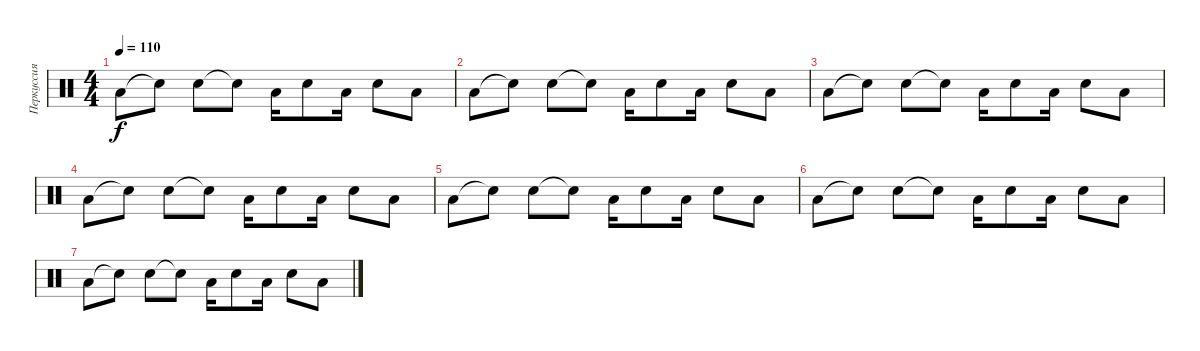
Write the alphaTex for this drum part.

\track ("Перкуссия" "Перкуссия") {instrument percussion}
\staff {score}
\articulation defaults
\ts (4 4)
\tempo 110
\clef neutral
\ks c "Low Floor Tom (hit)".8{dy f} "Snare (hit)"{t}.8 "Electric Snare (hit)".8 "Snare (hit)"{t}.8 "Low Floor Tom (hit)".16 "Electric Snare (hit)".8 "Low Floor Tom (hit)".16 "Electric Snare (hit)".8 "Low Floor Tom (hit)".8
|
"Low Floor Tom (hit)".8 "Snare (hit)"{t}.8 "Electric Snare (hit)".8 "Snare (hit)"{t}.8 "Low Floor Tom (hit)".16 "Electric Snare (hit)".8 "Low Floor Tom (hit)".16 "Electric Snare (hit)".8 "Low Floor Tom (hit)".8 |
"Low Floor Tom (hit)".8 "Snare (hit)"{t}.8 "Electric Snare (hit)".8 "Snare (hit)"{t}.8 "Low Floor Tom (hit)".16 "Electric Snare (hit)".8 "Low Floor Tom (hit)".16 "Electric Snare (hit)".8 "Low Floor Tom (hit)".8 |
"Low Floor Tom (hit)".8 "Snare (hit)"{t}.8 "Electric Snare (hit)".8 "Snare (hit)"{t}.8 "Low Floor Tom (hit)".16 "Electric Snare (hit)".8 "Low Floor Tom (hit)".16 "Electric Snare (hit)".8 "Low Floor Tom (hit)".8 |
"Low Floor Tom (hit)".8 "Snare (hit)"{t}.8 "Electric Snare (hit)".8 "Snare (hit)"{t}.8 "Low Floor Tom (hit)".16 "Electric Snare (hit)".8 "Low Floor Tom (hit)".16 "Electric Snare (hit)".8 "Low Floor Tom (hit)".8 |
"Low Floor Tom (hit)".8 "Snare (hit)"{t}.8 "Electric Snare (hit)".8 "Snare (hit)"{t}.8 "Low Floor Tom (hit)".16 "Electric Snare (hit)".8 "Low Floor Tom (hit)".16 "Electric Snare (hit)".8 "Low Floor Tom (hit)".8 |
"Low Floor Tom (hit)".8 "Snare (hit)"{t}.8 "Electric Snare (hit)".8 "Snare (hit)"{t}.8 "Low Floor Tom (hit)".16 "Electric Snare (hit)".8 "Low Floor Tom (hit)".16 "Electric Snare (hit)".8 "Low Floor Tom (hit)".8
